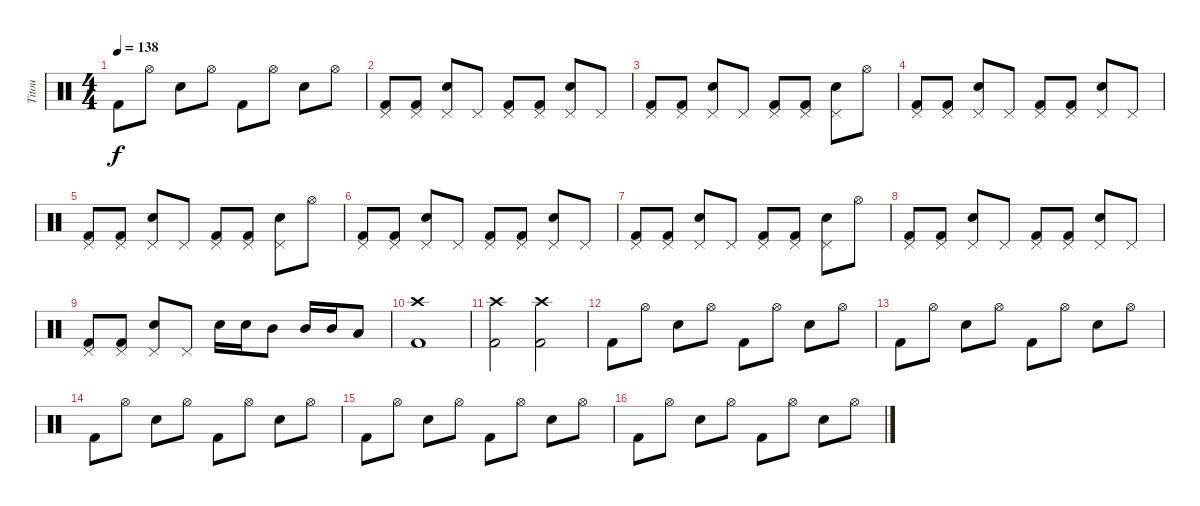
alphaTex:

\track ("Titou" "Titou") {instrument percussion}
\staff {score}
\articulation defaults
\ts (4 4)
\tempo 138
\clef neutral
\ks c "Kick (hit) 2".8{dy f} "Hi-Hat (open)".8 "Electric Snare (hit)".8 "Hi-Hat (open)".8 "Kick (hit) 2".8 "Hi-Hat (open)".8 "Electric Snare (hit)".8 "Hi-Hat (open)".8
|
("Pedal Hi-Hat (hit)" "Kick (hit) 2").8 ("Pedal Hi-Hat (hit)" "Kick (hit) 2").8 ("Pedal Hi-Hat (hit)" "Electric Snare (hit)").8 "Pedal Hi-Hat (hit)".8 ("Pedal Hi-Hat (hit)" "Kick (hit) 2").8 ("Pedal Hi-Hat (hit)" "Kick (hit) 2").8 ("Pedal Hi-Hat (hit)" "Electric Snare (hit)").8 "Pedal Hi-Hat (hit)".8 |
("Pedal Hi-Hat (hit)" "Kick (hit) 2").8 ("Pedal Hi-Hat (hit)" "Kick (hit) 2").8 ("Pedal Hi-Hat (hit)" "Electric Snare (hit)").8 "Pedal Hi-Hat (hit)".8 ("Pedal Hi-Hat (hit)" "Kick (hit) 2").8 ("Pedal Hi-Hat (hit)" "Kick (hit) 2").8 ("Pedal Hi-Hat (hit)" "Electric Snare (hit)").8 "Hi-Hat (open)".8 |
("Pedal Hi-Hat (hit)" "Kick (hit) 2").8 ("Pedal Hi-Hat (hit)" "Kick (hit) 2").8 ("Pedal Hi-Hat (hit)" "Electric Snare (hit)").8 "Pedal Hi-Hat (hit)".8 ("Pedal Hi-Hat (hit)" "Kick (hit) 2").8 ("Pedal Hi-Hat (hit)" "Kick (hit) 2").8 ("Pedal Hi-Hat (hit)" "Electric Snare (hit)").8 "Pedal Hi-Hat (hit)".8 |
("Pedal Hi-Hat (hit)" "Kick (hit) 2").8 ("Pedal Hi-Hat (hit)" "Kick (hit) 2").8 ("Pedal Hi-Hat (hit)" "Electric Snare (hit)").8 "Pedal Hi-Hat (hit)".8 ("Pedal Hi-Hat (hit)" "Kick (hit) 2").8 ("Pedal Hi-Hat (hit)" "Kick (hit) 2").8 ("Pedal Hi-Hat (hit)" "Electric Snare (hit)").8 "Hi-Hat (open)".8 |
("Pedal Hi-Hat (hit)" "Kick (hit) 2").8 ("Pedal Hi-Hat (hit)" "Kick (hit) 2").8 ("Pedal Hi-Hat (hit)" "Electric Snare (hit)").8 "Pedal Hi-Hat (hit)".8 ("Pedal Hi-Hat (hit)" "Kick (hit) 2").8 ("Pedal Hi-Hat (hit)" "Kick (hit) 2").8 ("Pedal Hi-Hat (hit)" "Electric Snare (hit)").8 "Pedal Hi-Hat (hit)".8 |
("Pedal Hi-Hat (hit)" "Kick (hit) 2").8 ("Pedal Hi-Hat (hit)" "Kick (hit) 2").8 ("Pedal Hi-Hat (hit)" "Electric Snare (hit)").8 "Pedal Hi-Hat (hit)".8 ("Pedal Hi-Hat (hit)" "Kick (hit) 2").8 ("Pedal Hi-Hat (hit)" "Kick (hit) 2").8 ("Pedal Hi-Hat (hit)" "Electric Snare (hit)").8 "Hi-Hat (open)".8 |
("Pedal Hi-Hat (hit)" "Kick (hit) 2").8 ("Pedal Hi-Hat (hit)" "Kick (hit) 2").8 ("Pedal Hi-Hat (hit)" "Electric Snare (hit)").8 "Pedal Hi-Hat (hit)".8 ("Pedal Hi-Hat (hit)" "Kick (hit) 2").8 ("Pedal Hi-Hat (hit)" "Kick (hit) 2").8 ("Pedal Hi-Hat (hit)" "Electric Snare (hit)").8 "Pedal Hi-Hat (hit)".8 |
("Pedal Hi-Hat (hit)" "Kick (hit) 2").8 ("Pedal Hi-Hat (hit)" "Kick (hit) 2").8 ("Pedal Hi-Hat (hit)" "Electric Snare (hit)").8 "Pedal Hi-Hat (hit)".8 "Electric Snare (hit)".16 "Electric Snare (hit)".16 "Mid Tom (hit)".8 "Mid Tom (hit)".16 "Mid Tom (hit)".16 "Low Tom (hit)".8 |
("Crash high (hit)" "Kick (hit) 2").1 |
("Crash high (hit)" "Kick (hit) 2").2 ("Crash high (hit)" "Kick (hit) 2").2 |
"Kick (hit) 2".8 "Hi-Hat (open)".8 "Electric Snare (hit)".8 "Hi-Hat (open)".8 "Kick (hit) 2".8 "Hi-Hat (open)".8 "Electric Snare (hit)".8 "Hi-Hat (open)".8 |
"Kick (hit) 2".8 "Hi-Hat (open)".8 "Electric Snare (hit)".8 "Hi-Hat (open)".8 "Kick (hit) 2".8 "Hi-Hat (open)".8 "Electric Snare (hit)".8 "Hi-Hat (open)".8 |
"Kick (hit) 2".8 "Hi-Hat (open)".8 "Electric Snare (hit)".8 "Hi-Hat (open)".8 "Kick (hit) 2".8 "Hi-Hat (open)".8 "Electric Snare (hit)".8 "Hi-Hat (open)".8 |
"Kick (hit) 2".8 "Hi-Hat (open)".8 "Electric Snare (hit)".8 "Hi-Hat (open)".8 "Kick (hit) 2".8 "Hi-Hat (open)".8 "Electric Snare (hit)".8 "Hi-Hat (open)".8 |
"Kick (hit) 2".8 "Hi-Hat (open)".8 "Electric Snare (hit)".8 "Hi-Hat (open)".8 "Kick (hit) 2".8 "Hi-Hat (open)".8 "Electric Snare (hit)".8 "Hi-Hat (open)".8
